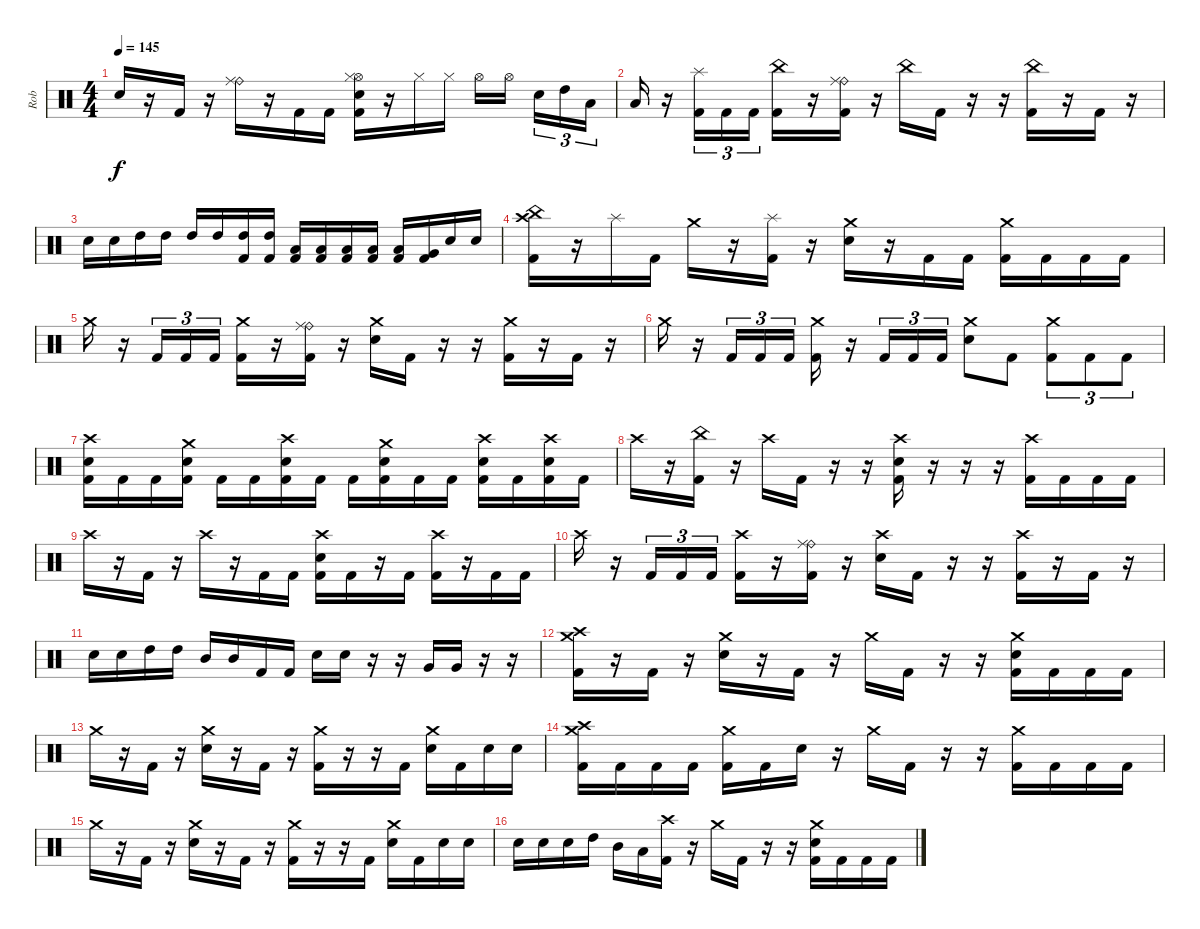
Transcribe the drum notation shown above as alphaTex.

\track ("Rob" "Rob") {instrument percussion}
\staff {score}
\articulation defaults
\ts (4 4)
\tempo 145
\clef neutral
\ks c "Electric Snare (hit)".16{dy f}
r.16 "Kick (hit) 2".16 r.16 ("Ride (bell)" "Ride (middle)").16 r.16 "Kick (hit) 2".16 "Kick (hit) 2".16 ("Kick (hit) 2" "Electric Snare (hit)" "Hi-Hat (open)" "Hi-Hat (closed)").16 r.16 "Hi-Hat (closed)".16 "Hi-Hat (closed)".16 "Hi-Hat (open)".16 "Hi-Hat (open)".16{beam splitsecondary} "Electric Snare (hit)".16{tu (3 2)} "High Tom (hit)".16{tu (3 2)} "Low Tom (hit)".16{tu (3 2)} |
"Low Tom (hit)".16 r.16 ("Splash (hit)" "Kick (hit) 2").16{tu (3 2)} "Kick (hit) 2".16{tu (3 2)} "Kick (hit) 2".16{tu (3 2)} ("China (hit)" "Kick (hit) 2").16 r.16 ("Ride (bell)" "Ride (middle)" "Kick (hit) 2").16 r.16 "China (hit)".16 "Kick (hit) 2".16 r.16 r.16 ("China (hit)" "Kick (hit) 2").16 r.16 "Kick (hit) 2".16 r.16 |
"Electric Snare (hit)".16 "Electric Snare (hit)".16 "High Tom (hit)".16 "High Tom (hit)".16 "High Tom (hit)".16 "High Tom (hit)".16 ("High Tom (hit)" "Kick (hit) 2").16 ("High Tom (hit)" "Kick (hit) 2").16 ("Low Tom (hit)" "Kick (hit) 2").16 ("Low Tom (hit)" "Kick (hit) 2").16 ("Low Tom (hit)" "Kick (hit) 2").16 ("Low Tom (hit)" "Kick (hit) 2").16 ("Low Tom (hit)" "Kick (hit) 2").16 ("Very Low Tom (hit)" "Kick (hit) 2").16 "Electric Snare (hit)".16 "Electric Snare (hit)".16 |
("China (hit)" "Kick (hit) 2" "Crash high (hit)").16 r.16 "Splash (hit)".16 "Kick (hit) 2".16 "Crash medium (hit)".16 r.16 ("Splash (hit)" "Kick (hit) 2").16 r.16 ("Crash medium (hit)" "Electric Snare (hit)").16 r.16 "Kick (hit) 2".16 "Kick (hit) 2".16 ("Crash medium (hit)" "Kick (hit) 2").16 "Kick (hit) 2".16 "Kick (hit) 2".16 "Kick (hit) 2".16 |
"Crash medium (hit)".16 r.16 "Kick (hit) 2".16{tu (3 2)} "Kick (hit) 2".16{tu (3 2)} "Kick (hit) 2".16{tu (3 2)} ("Crash medium (hit)" "Kick (hit) 2").16 r.16 ("Ride (bell)" "Ride (middle)" "Kick (hit) 2").16 r.16 ("Crash medium (hit)" "Electric Snare (hit)").16 "Kick (hit) 2".16 r.16 r.16 ("Crash medium (hit)" "Kick (hit) 2").16 r.16 "Kick (hit) 2".16 r.16 |
"Crash medium (hit)".16 r.16 "Kick (hit) 2".16{tu (3 2)} "Kick (hit) 2".16{tu (3 2)} "Kick (hit) 2".16{tu (3 2)} ("Crash medium (hit)" "Kick (hit) 2").16 r.16 "Kick (hit) 2".16{tu (3 2)} "Kick (hit) 2".16{tu (3 2)} "Kick (hit) 2".16{tu (3 2)} ("Crash medium (hit)" "Electric Snare (hit)").8 "Kick (hit) 2".8 ("Crash medium (hit)" "Kick (hit) 2").8{tu (3 2)} "Kick (hit) 2".8{tu (3 2)} "Kick (hit) 2".8{tu (3 2)} |
("Electric Snare (hit)" "Kick (hit) 2" "Crash high (hit)").16 "Kick (hit) 2".16 "Kick (hit) 2".16 ("Electric Snare (hit)" "Kick (hit) 2" "Crash medium (hit)").16 "Kick (hit) 2".16 "Kick (hit) 2".16 ("Electric Snare (hit)" "Kick (hit) 2" "Crash high (hit)").16 "Kick (hit) 2".16 "Kick (hit) 2".16 ("Electric Snare (hit)" "Kick (hit) 2" "Crash medium (hit)").16 "Kick (hit) 2".16 "Kick (hit) 2".16 ("Kick (hit) 2" "Electric Snare (hit)" "Crash high (hit)").16 "Kick (hit) 2".16 ("Kick (hit) 2" "Electric Snare (hit)" "Crash high (hit)").16 "Kick (hit) 2".16 |
"Crash high (hit)".16 r.16 ("Kick (hit) 2" "China (hit)").16 r.16 "Crash high (hit)".16 "Kick (hit) 2".16 r.16 r.16 ("Crash high (hit)" "Kick (hit) 2" "Electric Snare (hit)").16 r.16 r.16 r.16 ("Crash high (hit)" "Kick (hit) 2").16 "Kick (hit) 2".16 "Kick (hit) 2".16 "Kick (hit) 2".16 |
"Crash high (hit)".16 r.16 "Kick (hit) 2".16 r.16 "Crash high (hit)".16 r.16 "Kick (hit) 2".16 "Kick (hit) 2".16 ("Crash high (hit)" "Electric Snare (hit)" "Kick (hit) 2").16 "Kick (hit) 2".16 r.16 "Kick (hit) 2".16 ("Crash high (hit)" "Kick (hit) 2").16 r.16 "Kick (hit) 2".16 "Kick (hit) 2".16 |
"Crash high (hit)".16 r.16 "Kick (hit) 2".16{tu (3 2)} "Kick (hit) 2".16{tu (3 2)} "Kick (hit) 2".16{tu (3 2)} ("Crash high (hit)" "Kick (hit) 2").16 r.16 ("Ride (bell)" "Ride (middle)" "Kick (hit) 2").16 r.16 ("Electric Snare (hit)" "Crash high (hit)").16 "Kick (hit) 2".16 r.16 r.16 ("Crash high (hit)" "Kick (hit) 2").16 r.16 "Kick (hit) 2".16 r.16 |
"Electric Snare (hit)".16 "Electric Snare (hit)".16 "High Tom (hit)".16 "High Tom (hit)".16 "Mid Tom (hit)".16 "Mid Tom (hit)".16 "Kick (hit) 2".16 "Kick (hit) 2".16 "Electric Snare (hit)".16 "Electric Snare (hit)".16 r.16 r.16 "Very Low Tom (hit)".16 "Very Low Tom (hit)".16 r.16 r.16 |
("Crash high (hit)" "Kick (hit) 2" "Crash medium (hit)").16 r.16 "Kick (hit) 2".16 r.16 ("Electric Snare (hit)" "Crash medium (hit)").16 r.16 "Kick (hit) 2".16 r.16 "Crash medium (hit)".16 "Kick (hit) 2".16 r.16 r.16 ("Kick (hit) 2" "Electric Snare (hit)" "Crash medium (hit)").16 "Kick (hit) 2".16 "Kick (hit) 2".16 "Kick (hit) 2".16 |
"Crash medium (hit)".16 r.16 "Kick (hit) 2".16 r.16 ("Electric Snare (hit)" "Crash medium (hit)").16 r.16 "Kick (hit) 2".16 r.16 ("Kick (hit) 2" "Crash medium (hit)").16 r.16 r.16 "Kick (hit) 2".16 ("Electric Snare (hit)" "Crash medium (hit)").16 "Kick (hit) 2".16 "Electric Snare (hit)".16 "Electric Snare (hit)".16 |
("Crash high (hit)" "Kick (hit) 2" "Crash medium (hit)").16 "Kick (hit) 2".16 "Kick (hit) 2".16 "Kick (hit) 2".16 ("Kick (hit) 2" "Crash medium (hit)").16 "Kick (hit) 2".16 "Electric Snare (hit)".16 r.16 "Crash medium (hit)".16 "Kick (hit) 2".16 r.16 r.16 ("Kick (hit) 2" "Crash medium (hit)").16 "Kick (hit) 2".16 "Kick (hit) 2".16 "Kick (hit) 2".16 |
"Crash medium (hit)".16 r.16 "Kick (hit) 2".16 r.16 ("Electric Snare (hit)" "Crash medium (hit)").16 r.16 "Kick (hit) 2".16 r.16 ("Kick (hit) 2" "Crash medium (hit)").16 r.16 r.16 "Kick (hit) 2".16 ("Electric Snare (hit)" "Crash medium (hit)").16 "Kick (hit) 2".16 "Electric Snare (hit)".16 "Electric Snare (hit)".16 |
"Electric Snare (hit)".16 "Electric Snare (hit)".16 "Electric Snare (hit)".16 "High Tom (hit)".16 "Mid Tom (hit)".16 "Low Tom (hit)".16 ("Crash high (hit)" "Kick (hit) 2").16 r.16 "Crash medium (hit)".16 "Kick (hit) 2".16 r.16 r.16 ("Kick (hit) 2" "Electric Snare (hit)" "Crash medium (hit)").16 "Kick (hit) 2".16 "Kick (hit) 2".16 "Kick (hit) 2".16
